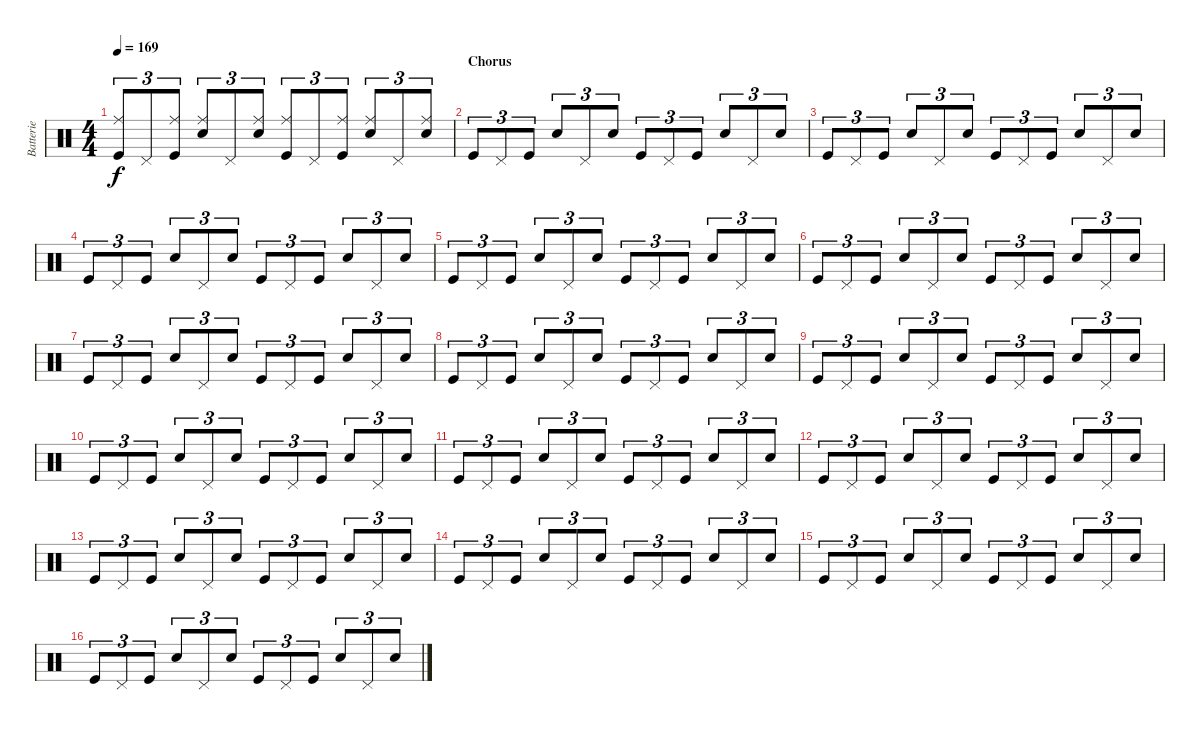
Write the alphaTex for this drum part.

\track ("Batterie" "Batterie") {instrument percussion}
\staff {score}
\articulation defaults
\ts (4 4)
\tempo 169
\clef neutral
\ks c
("Ride (middle)" "Kick (hit)").8{tu (3 2) dy f} "Pedal Hi-Hat (hit)".8{tu (3 2)} ("Ride (middle)" "Kick (hit)").8{tu (3 2)} ("Ride (middle)" "Snare (hit) 2").8{tu (3 2)} "Pedal Hi-Hat (hit)".8{tu (3 2)} ("Ride (middle)" "Snare (hit) 2").8{tu (3 2)} ("Ride (middle)" "Kick (hit)").8{tu (3 2)} "Pedal Hi-Hat (hit)".8{tu (3 2)} ("Ride (middle)" "Kick (hit)").8{tu (3 2)} ("Ride (middle)" "Snare (hit) 2").8{tu (3 2)} "Pedal Hi-Hat (hit)".8{tu (3 2)} ("Ride (middle)" "Snare (hit) 2").8{tu (3 2)} |
\section ("" "Chorus")
"Kick (hit)".8{tu (3 2)} "Pedal Hi-Hat (hit)".8{tu (3 2)} "Kick (hit)".8{tu (3 2)} "Snare (hit) 2".8{tu (3 2)} "Pedal Hi-Hat (hit)".8{tu (3 2)} "Snare (hit) 2".8{tu (3 2)} "Kick (hit)".8{tu (3 2)} "Pedal Hi-Hat (hit)".8{tu (3 2)} "Kick (hit)".8{tu (3 2)} "Snare (hit) 2".8{tu (3 2)} "Pedal Hi-Hat (hit)".8{tu (3 2)} "Snare (hit) 2".8{tu (3 2)} |
"Kick (hit)".8{tu (3 2)} "Pedal Hi-Hat (hit)".8{tu (3 2)} "Kick (hit)".8{tu (3 2)} "Snare (hit) 2".8{tu (3 2)} "Pedal Hi-Hat (hit)".8{tu (3 2)} "Snare (hit) 2".8{tu (3 2)} "Kick (hit)".8{tu (3 2)} "Pedal Hi-Hat (hit)".8{tu (3 2)} "Kick (hit)".8{tu (3 2)} "Snare (hit) 2".8{tu (3 2)} "Pedal Hi-Hat (hit)".8{tu (3 2)} "Snare (hit) 2".8{tu (3 2)} |
"Kick (hit)".8{tu (3 2)} "Pedal Hi-Hat (hit)".8{tu (3 2)} "Kick (hit)".8{tu (3 2)} "Snare (hit) 2".8{tu (3 2)} "Pedal Hi-Hat (hit)".8{tu (3 2)} "Snare (hit) 2".8{tu (3 2)} "Kick (hit)".8{tu (3 2)} "Pedal Hi-Hat (hit)".8{tu (3 2)} "Kick (hit)".8{tu (3 2)} "Snare (hit) 2".8{tu (3 2)} "Pedal Hi-Hat (hit)".8{tu (3 2)} "Snare (hit) 2".8{tu (3 2)} |
"Kick (hit)".8{tu (3 2)} "Pedal Hi-Hat (hit)".8{tu (3 2)} "Kick (hit)".8{tu (3 2)} "Snare (hit) 2".8{tu (3 2)} "Pedal Hi-Hat (hit)".8{tu (3 2)} "Snare (hit) 2".8{tu (3 2)} "Kick (hit)".8{tu (3 2)} "Pedal Hi-Hat (hit)".8{tu (3 2)} "Kick (hit)".8{tu (3 2)} "Snare (hit) 2".8{tu (3 2)} "Pedal Hi-Hat (hit)".8{tu (3 2)} "Snare (hit) 2".8{tu (3 2)} |
"Kick (hit)".8{tu (3 2)} "Pedal Hi-Hat (hit)".8{tu (3 2)} "Kick (hit)".8{tu (3 2)} "Snare (hit) 2".8{tu (3 2)} "Pedal Hi-Hat (hit)".8{tu (3 2)} "Snare (hit) 2".8{tu (3 2)} "Kick (hit)".8{tu (3 2)} "Pedal Hi-Hat (hit)".8{tu (3 2)} "Kick (hit)".8{tu (3 2)} "Snare (hit) 2".8{tu (3 2)} "Pedal Hi-Hat (hit)".8{tu (3 2)} "Snare (hit) 2".8{tu (3 2)} |
"Kick (hit)".8{tu (3 2)} "Pedal Hi-Hat (hit)".8{tu (3 2)} "Kick (hit)".8{tu (3 2)} "Snare (hit) 2".8{tu (3 2)} "Pedal Hi-Hat (hit)".8{tu (3 2)} "Snare (hit) 2".8{tu (3 2)} "Kick (hit)".8{tu (3 2)} "Pedal Hi-Hat (hit)".8{tu (3 2)} "Kick (hit)".8{tu (3 2)} "Snare (hit) 2".8{tu (3 2)} "Pedal Hi-Hat (hit)".8{tu (3 2)} "Snare (hit) 2".8{tu (3 2)} |
"Kick (hit)".8{tu (3 2)} "Pedal Hi-Hat (hit)".8{tu (3 2)} "Kick (hit)".8{tu (3 2)} "Snare (hit) 2".8{tu (3 2)} "Pedal Hi-Hat (hit)".8{tu (3 2)} "Snare (hit) 2".8{tu (3 2)} "Kick (hit)".8{tu (3 2)} "Pedal Hi-Hat (hit)".8{tu (3 2)} "Kick (hit)".8{tu (3 2)} "Snare (hit) 2".8{tu (3 2)} "Pedal Hi-Hat (hit)".8{tu (3 2)} "Snare (hit) 2".8{tu (3 2)} |
"Kick (hit)".8{tu (3 2)} "Pedal Hi-Hat (hit)".8{tu (3 2)} "Kick (hit)".8{tu (3 2)} "Snare (hit) 2".8{tu (3 2)} "Pedal Hi-Hat (hit)".8{tu (3 2)} "Snare (hit) 2".8{tu (3 2)} "Kick (hit)".8{tu (3 2)} "Pedal Hi-Hat (hit)".8{tu (3 2)} "Kick (hit)".8{tu (3 2)} "Snare (hit) 2".8{tu (3 2)} "Pedal Hi-Hat (hit)".8{tu (3 2)} "Snare (hit) 2".8{tu (3 2)} |
"Kick (hit)".8{tu (3 2)} "Pedal Hi-Hat (hit)".8{tu (3 2)} "Kick (hit)".8{tu (3 2)} "Snare (hit) 2".8{tu (3 2)} "Pedal Hi-Hat (hit)".8{tu (3 2)} "Snare (hit) 2".8{tu (3 2)} "Kick (hit)".8{tu (3 2)} "Pedal Hi-Hat (hit)".8{tu (3 2)} "Kick (hit)".8{tu (3 2)} "Snare (hit) 2".8{tu (3 2)} "Pedal Hi-Hat (hit)".8{tu (3 2)} "Snare (hit) 2".8{tu (3 2)} |
"Kick (hit)".8{tu (3 2)} "Pedal Hi-Hat (hit)".8{tu (3 2)} "Kick (hit)".8{tu (3 2)} "Snare (hit) 2".8{tu (3 2)} "Pedal Hi-Hat (hit)".8{tu (3 2)} "Snare (hit) 2".8{tu (3 2)} "Kick (hit)".8{tu (3 2)} "Pedal Hi-Hat (hit)".8{tu (3 2)} "Kick (hit)".8{tu (3 2)} "Snare (hit) 2".8{tu (3 2)} "Pedal Hi-Hat (hit)".8{tu (3 2)} "Snare (hit) 2".8{tu (3 2)} |
"Kick (hit)".8{tu (3 2)} "Pedal Hi-Hat (hit)".8{tu (3 2)} "Kick (hit)".8{tu (3 2)} "Snare (hit) 2".8{tu (3 2)} "Pedal Hi-Hat (hit)".8{tu (3 2)} "Snare (hit) 2".8{tu (3 2)} "Kick (hit)".8{tu (3 2)} "Pedal Hi-Hat (hit)".8{tu (3 2)} "Kick (hit)".8{tu (3 2)} "Snare (hit) 2".8{tu (3 2)} "Pedal Hi-Hat (hit)".8{tu (3 2)} "Snare (hit) 2".8{tu (3 2)} |
"Kick (hit)".8{tu (3 2)} "Pedal Hi-Hat (hit)".8{tu (3 2)} "Kick (hit)".8{tu (3 2)} "Snare (hit) 2".8{tu (3 2)} "Pedal Hi-Hat (hit)".8{tu (3 2)} "Snare (hit) 2".8{tu (3 2)} "Kick (hit)".8{tu (3 2)} "Pedal Hi-Hat (hit)".8{tu (3 2)} "Kick (hit)".8{tu (3 2)} "Snare (hit) 2".8{tu (3 2)} "Pedal Hi-Hat (hit)".8{tu (3 2)} "Snare (hit) 2".8{tu (3 2)} |
"Kick (hit)".8{tu (3 2)} "Pedal Hi-Hat (hit)".8{tu (3 2)} "Kick (hit)".8{tu (3 2)} "Snare (hit) 2".8{tu (3 2)} "Pedal Hi-Hat (hit)".8{tu (3 2)} "Snare (hit) 2".8{tu (3 2)} "Kick (hit)".8{tu (3 2)} "Pedal Hi-Hat (hit)".8{tu (3 2)} "Kick (hit)".8{tu (3 2)} "Snare (hit) 2".8{tu (3 2)} "Pedal Hi-Hat (hit)".8{tu (3 2)} "Snare (hit) 2".8{tu (3 2)} |
"Kick (hit)".8{tu (3 2)} "Pedal Hi-Hat (hit)".8{tu (3 2)} "Kick (hit)".8{tu (3 2)} "Snare (hit) 2".8{tu (3 2)} "Pedal Hi-Hat (hit)".8{tu (3 2)} "Snare (hit) 2".8{tu (3 2)} "Kick (hit)".8{tu (3 2)} "Pedal Hi-Hat (hit)".8{tu (3 2)} "Kick (hit)".8{tu (3 2)} "Snare (hit) 2".8{tu (3 2)} "Pedal Hi-Hat (hit)".8{tu (3 2)} "Snare (hit) 2".8{tu (3 2)} |
"Kick (hit)".8{tu (3 2)} "Pedal Hi-Hat (hit)".8{tu (3 2)} "Kick (hit)".8{tu (3 2)} "Snare (hit) 2".8{tu (3 2)} "Pedal Hi-Hat (hit)".8{tu (3 2)} "Snare (hit) 2".8{tu (3 2)} "Kick (hit)".8{tu (3 2)} "Pedal Hi-Hat (hit)".8{tu (3 2)} "Kick (hit)".8{tu (3 2)} "Snare (hit) 2".8{tu (3 2)} "Pedal Hi-Hat (hit)".8{tu (3 2)} "Snare (hit) 2".8{tu (3 2)}
